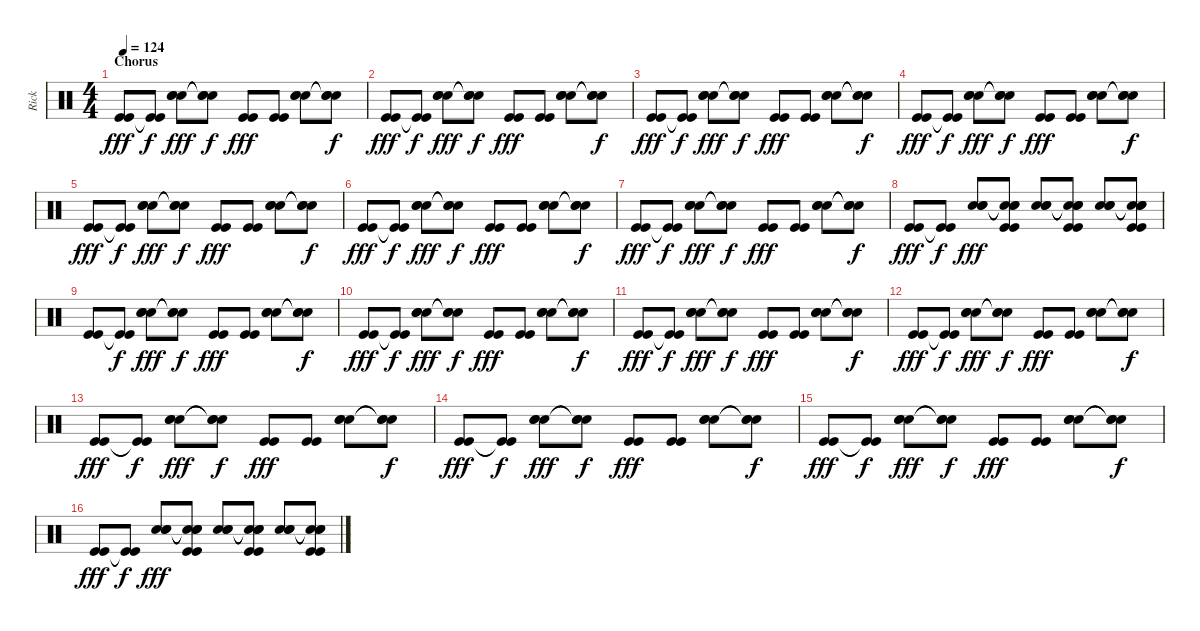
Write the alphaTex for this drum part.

\track ("Rick" "Rick") {instrument percussion}
\staff {score}
\articulation defaults
\ts (4 4)
\section ("" "Chorus")
\tempo 124
\clef neutral
\ks c
("Kick (hit)" "Kick (hit)").8{dy fff} ("Kick (hit)"{t} "Kick (hit)"{t}).8{dy f} ("Snare (hit) 2" "Snare (hit) 2" "Snare (hit) 2").8{dy fff} ("Snare (hit)"{t} "Snare (hit)"{t} "Snare (hit)"{t}).8{dy f} ("Kick (hit)" "Kick (hit)").8{dy fff} ("Kick (hit)" "Kick (hit)").8 ("Snare (hit) 2" "Snare (hit) 2" "Snare (hit) 2").8 ("Snare (hit)"{t} "Snare (hit)"{t} "Snare (hit)"{t}).8{dy f} |
("Kick (hit)" "Kick (hit)").8{dy fff} ("Kick (hit)"{t} "Kick (hit)"{t}).8{dy f} ("Snare (hit) 2" "Snare (hit) 2" "Snare (hit) 2").8{dy fff} ("Snare (hit)"{t} "Snare (hit)"{t} "Snare (hit)"{t}).8{dy f} ("Kick (hit)" "Kick (hit)").8{dy fff} ("Kick (hit)" "Kick (hit)").8 ("Snare (hit) 2" "Snare (hit) 2" "Snare (hit) 2").8 ("Snare (hit)"{t} "Snare (hit)"{t} "Snare (hit)"{t}).8{dy f} |
("Kick (hit)" "Kick (hit)").8{dy fff} ("Kick (hit)"{t} "Kick (hit)"{t}).8{dy f} ("Snare (hit) 2" "Snare (hit) 2" "Snare (hit) 2").8{dy fff} ("Snare (hit)"{t} "Snare (hit)"{t} "Snare (hit)"{t}).8{dy f} ("Kick (hit)" "Kick (hit)").8{dy fff} ("Kick (hit)" "Kick (hit)").8 ("Snare (hit) 2" "Snare (hit) 2" "Snare (hit) 2").8 ("Snare (hit)"{t} "Snare (hit)"{t} "Snare (hit)"{t}).8{dy f} |
("Kick (hit)" "Kick (hit)").8{dy fff} ("Kick (hit)"{t} "Kick (hit)"{t}).8{dy f} ("Snare (hit) 2" "Snare (hit) 2" "Snare (hit) 2").8{dy fff} ("Snare (hit)"{t} "Snare (hit)"{t} "Snare (hit)"{t}).8{dy f} ("Kick (hit)" "Kick (hit)").8{dy fff} ("Kick (hit)" "Kick (hit)").8 ("Snare (hit) 2" "Snare (hit) 2" "Snare (hit) 2").8 ("Snare (hit)"{t} "Snare (hit)"{t} "Snare (hit)"{t}).8{dy f} |
("Kick (hit)" "Kick (hit)").8{dy fff} ("Kick (hit)"{t} "Kick (hit)"{t}).8{dy f} ("Snare (hit) 2" "Snare (hit) 2" "Snare (hit) 2").8{dy fff} ("Snare (hit)"{t} "Snare (hit)"{t} "Snare (hit)"{t}).8{dy f} ("Kick (hit)" "Kick (hit)").8{dy fff} ("Kick (hit)" "Kick (hit)").8 ("Snare (hit) 2" "Snare (hit) 2" "Snare (hit) 2").8 ("Snare (hit)"{t} "Snare (hit)"{t} "Snare (hit)"{t}).8{dy f} |
("Kick (hit)" "Kick (hit)").8{dy fff} ("Kick (hit)"{t} "Kick (hit)"{t}).8{dy f} ("Snare (hit) 2" "Snare (hit) 2" "Snare (hit) 2").8{dy fff} ("Snare (hit)"{t} "Snare (hit)"{t} "Snare (hit)"{t}).8{dy f} ("Kick (hit)" "Kick (hit)").8{dy fff} ("Kick (hit)" "Kick (hit)").8 ("Snare (hit) 2" "Snare (hit) 2" "Snare (hit) 2").8 ("Snare (hit)"{t} "Snare (hit)"{t} "Snare (hit)"{t}).8{dy f} |
("Kick (hit)" "Kick (hit)").8{dy fff} ("Kick (hit)"{t} "Kick (hit)"{t}).8{dy f} ("Snare (hit) 2" "Snare (hit) 2" "Snare (hit) 2").8{dy fff} ("Snare (hit)"{t} "Snare (hit)"{t} "Snare (hit)"{t}).8{dy f} ("Kick (hit)" "Kick (hit)").8{dy fff} ("Kick (hit)" "Kick (hit)").8 ("Snare (hit) 2" "Snare (hit) 2" "Snare (hit) 2").8 ("Snare (hit)"{t} "Snare (hit)"{t} "Snare (hit)"{t}).8{dy f} |
("Kick (hit)" "Kick (hit)").8{dy fff} ("Kick (hit)"{t} "Kick (hit)"{t}).8{dy f} ("Snare (hit) 2" "Snare (hit) 2" "Snare (hit) 2").8{dy fff} ("Snare (hit)"{t} "Snare (hit)"{t} "Snare (hit)"{t} "Kick (hit)" "Kick (hit)").8 ("Snare (hit) 2" "Snare (hit) 2" "Snare (hit) 2").8 ("Snare (hit)"{t} "Snare (hit)"{t} "Snare (hit)"{t} "Kick (hit)" "Kick (hit)").8 ("Snare (hit) 2" "Snare (hit) 2" "Snare (hit) 2").8 ("Snare (hit)"{t} "Snare (hit)"{t} "Snare (hit)"{t} "Kick (hit)" "Kick (hit)").8 |
("Kick (hit)" "Kick (hit)").8 ("Kick (hit)"{t} "Kick (hit)"{t}).8{dy f} ("Snare (hit) 2" "Snare (hit) 2" "Snare (hit) 2").8{dy fff} ("Snare (hit)"{t} "Snare (hit)"{t} "Snare (hit)"{t}).8{dy f} ("Kick (hit)" "Kick (hit)").8{dy fff} ("Kick (hit)" "Kick (hit)").8 ("Snare (hit) 2" "Snare (hit) 2" "Snare (hit) 2").8 ("Snare (hit)"{t} "Snare (hit)"{t} "Snare (hit)"{t}).8{dy f} |
("Kick (hit)" "Kick (hit)").8{dy fff} ("Kick (hit)"{t} "Kick (hit)"{t}).8{dy f} ("Snare (hit) 2" "Snare (hit) 2" "Snare (hit) 2").8{dy fff} ("Snare (hit)"{t} "Snare (hit)"{t} "Snare (hit)"{t}).8{dy f} ("Kick (hit)" "Kick (hit)").8{dy fff} ("Kick (hit)" "Kick (hit)").8 ("Snare (hit) 2" "Snare (hit) 2" "Snare (hit) 2").8 ("Snare (hit)"{t} "Snare (hit)"{t} "Snare (hit)"{t}).8{dy f} |
("Kick (hit)" "Kick (hit)").8{dy fff} ("Kick (hit)"{t} "Kick (hit)"{t}).8{dy f} ("Snare (hit) 2" "Snare (hit) 2" "Snare (hit) 2").8{dy fff} ("Snare (hit)"{t} "Snare (hit)"{t} "Snare (hit)"{t}).8{dy f} ("Kick (hit)" "Kick (hit)").8{dy fff} ("Kick (hit)" "Kick (hit)").8 ("Snare (hit) 2" "Snare (hit) 2" "Snare (hit) 2").8 ("Snare (hit)"{t} "Snare (hit)"{t} "Snare (hit)"{t}).8{dy f} |
("Kick (hit)" "Kick (hit)").8{dy fff} ("Kick (hit)"{t} "Kick (hit)"{t}).8{dy f} ("Snare (hit) 2" "Snare (hit) 2" "Snare (hit) 2").8{dy fff} ("Snare (hit)"{t} "Snare (hit)"{t} "Snare (hit)"{t}).8{dy f} ("Kick (hit)" "Kick (hit)").8{dy fff} ("Kick (hit)" "Kick (hit)").8 ("Snare (hit) 2" "Snare (hit) 2" "Snare (hit) 2").8 ("Snare (hit)"{t} "Snare (hit)"{t} "Snare (hit)"{t}).8{dy f} |
("Kick (hit)" "Kick (hit)").8{dy fff} ("Kick (hit)"{t} "Kick (hit)"{t}).8{dy f} ("Snare (hit) 2" "Snare (hit) 2" "Snare (hit) 2").8{dy fff} ("Snare (hit)"{t} "Snare (hit)"{t} "Snare (hit)"{t}).8{dy f} ("Kick (hit)" "Kick (hit)").8{dy fff} ("Kick (hit)" "Kick (hit)").8 ("Snare (hit) 2" "Snare (hit) 2" "Snare (hit) 2").8 ("Snare (hit)"{t} "Snare (hit)"{t} "Snare (hit)"{t}).8{dy f} |
("Kick (hit)" "Kick (hit)").8{dy fff} ("Kick (hit)"{t} "Kick (hit)"{t}).8{dy f} ("Snare (hit) 2" "Snare (hit) 2" "Snare (hit) 2").8{dy fff} ("Snare (hit)"{t} "Snare (hit)"{t} "Snare (hit)"{t}).8{dy f} ("Kick (hit)" "Kick (hit)").8{dy fff} ("Kick (hit)" "Kick (hit)").8 ("Snare (hit) 2" "Snare (hit) 2" "Snare (hit) 2").8 ("Snare (hit)"{t} "Snare (hit)"{t} "Snare (hit)"{t}).8{dy f} |
("Kick (hit)" "Kick (hit)").8{dy fff} ("Kick (hit)"{t} "Kick (hit)"{t}).8{dy f} ("Snare (hit) 2" "Snare (hit) 2" "Snare (hit) 2").8{dy fff} ("Snare (hit)"{t} "Snare (hit)"{t} "Snare (hit)"{t}).8{dy f} ("Kick (hit)" "Kick (hit)").8{dy fff} ("Kick (hit)" "Kick (hit)").8 ("Snare (hit) 2" "Snare (hit) 2" "Snare (hit) 2").8 ("Snare (hit)"{t} "Snare (hit)"{t} "Snare (hit)"{t}).8{dy f} |
("Kick (hit)" "Kick (hit)").8{dy fff} ("Kick (hit)"{t} "Kick (hit)"{t}).8{dy f} ("Snare (hit) 2" "Snare (hit) 2" "Snare (hit) 2").8{dy fff} ("Snare (hit)"{t} "Snare (hit)"{t} "Snare (hit)"{t} "Kick (hit)" "Kick (hit)").8 ("Snare (hit) 2" "Snare (hit) 2" "Snare (hit) 2").8 ("Snare (hit) 2"{t} "Snare (hit) 2"{t} "Snare (hit) 2"{t} "Kick (hit)" "Kick (hit)").8 ("Snare (hit) 2" "Snare (hit) 2" "Snare (hit) 2").8 ("Snare (hit) 2"{t} "Snare (hit) 2"{t} "Snare (hit) 2"{t} "Kick (hit)" "Kick (hit)").8
